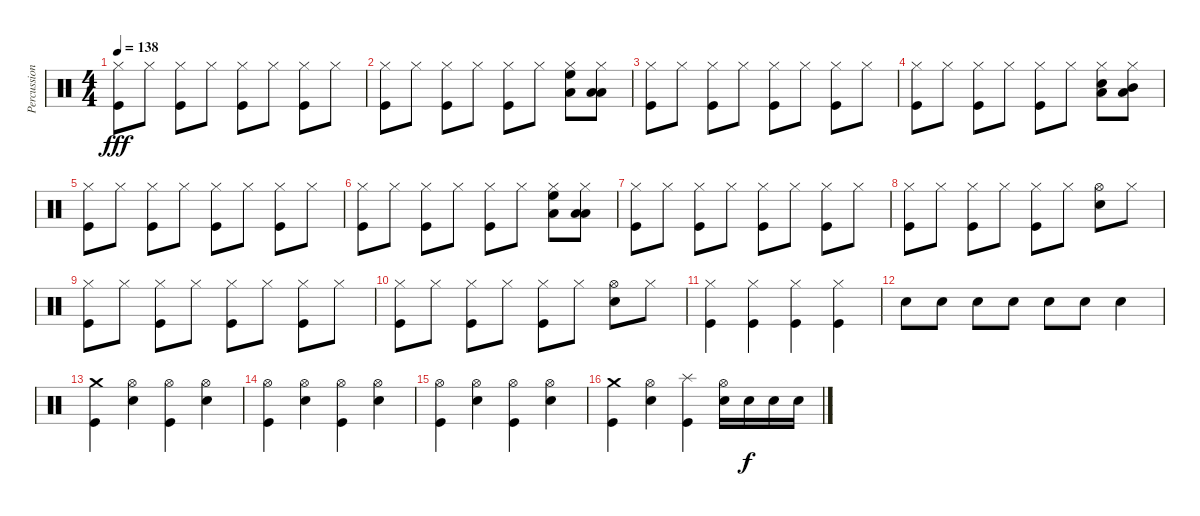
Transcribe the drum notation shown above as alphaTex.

\track ("Percussions" "Percussion") {instrument percussion}
\staff {score}
\articulation defaults
\ts (4 4)
\tempo 138
\clef neutral
\ks c
("Hi-Hat (closed)" "Kick (hit)").8{dy fff} "Hi-Hat (closed)".8 ("Hi-Hat (closed)" "Kick (hit)").8 "Hi-Hat (closed)".8 ("Hi-Hat (closed)" "Kick (hit)").8 "Hi-Hat (closed)".8 ("Hi-Hat (closed)" "Kick (hit)").8 "Hi-Hat (closed)".8 |
("Hi-Hat (closed)" "Kick (hit)").8 "Hi-Hat (closed)".8 ("Hi-Hat (closed)" "Kick (hit)").8 "Hi-Hat (closed)".8 ("Hi-Hat (closed)" "Kick (hit)").8 "Hi-Hat (closed)".8 ("Hi-Hat (closed)" "High Floor Tom (hit)" "Low Floor Tom (hit)").8 ("Hi-Hat (closed)" "Low Floor Tom (hit)" "Low Tom (hit)").8 |
("Hi-Hat (closed)" "Kick (hit)").8 "Hi-Hat (closed)".8 ("Hi-Hat (closed)" "Kick (hit)").8 "Hi-Hat (closed)".8 ("Hi-Hat (closed)" "Kick (hit)").8 "Hi-Hat (closed)".8 ("Hi-Hat (closed)" "Kick (hit)").8 "Hi-Hat (closed)".8 |
("Hi-Hat (closed)" "Kick (hit)").8 "Hi-Hat (closed)".8 ("Hi-Hat (closed)" "Kick (hit)").8 "Hi-Hat (closed)".8 ("Hi-Hat (closed)" "Kick (hit)").8 "Hi-Hat (closed)".8 ("Hi-Hat (closed)" "Snare (hit) 2" "Low Floor Tom (hit)").8 ("Hi-Hat (closed)" "Mid Tom (hit)" "Low Tom (hit)").8 |
("Hi-Hat (closed)" "Kick (hit)").8 "Hi-Hat (closed)".8 ("Hi-Hat (closed)" "Kick (hit)").8 "Hi-Hat (closed)".8 ("Hi-Hat (closed)" "Kick (hit)").8 "Hi-Hat (closed)".8 ("Hi-Hat (closed)" "Kick (hit)").8 "Hi-Hat (closed)".8 |
("Hi-Hat (closed)" "Kick (hit)").8 "Hi-Hat (closed)".8 ("Hi-Hat (closed)" "Kick (hit)").8 "Hi-Hat (closed)".8 ("Hi-Hat (closed)" "Kick (hit)").8 "Hi-Hat (closed)".8 ("Hi-Hat (closed)" "High Floor Tom (hit)" "Low Floor Tom (hit)").8 ("Hi-Hat (closed)" "Low Floor Tom (hit)" "Low Tom (hit)").8 |
("Hi-Hat (closed)" "Kick (hit)").8 "Hi-Hat (closed)".8 ("Hi-Hat (closed)" "Kick (hit)").8 "Hi-Hat (closed)".8 ("Hi-Hat (closed)" "Kick (hit)").8 "Hi-Hat (closed)".8 ("Hi-Hat (closed)" "Kick (hit)").8 "Hi-Hat (closed)".8 |
("Hi-Hat (closed)" "Kick (hit)").8 "Hi-Hat (closed)".8 ("Hi-Hat (closed)" "Kick (hit)").8 "Hi-Hat (closed)".8 ("Hi-Hat (closed)" "Kick (hit)").8 "Hi-Hat (closed)".8 ("Hi-Hat (open)" "Snare (hit) 2").8 "Hi-Hat (closed)".8 |
("Hi-Hat (closed)" "Kick (hit)").8 "Hi-Hat (closed)".8 ("Hi-Hat (closed)" "Kick (hit)").8 "Hi-Hat (closed)".8 ("Hi-Hat (closed)" "Kick (hit)").8 "Hi-Hat (closed)".8 ("Hi-Hat (closed)" "Kick (hit)").8 "Hi-Hat (closed)".8 |
("Hi-Hat (closed)" "Kick (hit)").8 "Hi-Hat (closed)".8 ("Hi-Hat (closed)" "Kick (hit)").8 "Hi-Hat (closed)".8 ("Hi-Hat (closed)" "Kick (hit)").8 "Hi-Hat (closed)".8 ("Hi-Hat (open)" "Snare (hit) 2").8 "Hi-Hat (closed)".8 |
("Hi-Hat (closed)" "Kick (hit)").4 ("Hi-Hat (closed)" "Kick (hit)").4 ("Hi-Hat (closed)" "Kick (hit)").4 ("Hi-Hat (closed)" "Kick (hit)").4 |
"Snare (hit) 2".8 "Snare (hit) 2".8 "Snare (hit) 2".8 "Snare (hit) 2".8 "Snare (hit) 2".8 "Snare (hit) 2".8 "Snare (hit) 2".4 |
("Crash medium (hit)" "Kick (hit)").4 ("Hi-Hat (open)" "Snare (hit) 2").4 ("Hi-Hat (open)" "Kick (hit)").4 ("Hi-Hat (open)" "Snare (hit) 2").4 |
("Hi-Hat (open)" "Kick (hit)").4 ("Hi-Hat (open)" "Snare (hit) 2").4 ("Hi-Hat (open)" "Kick (hit)").4 ("Hi-Hat (open)" "Snare (hit) 2").4 |
("Hi-Hat (open)" "Kick (hit)").4 ("Hi-Hat (open)" "Snare (hit) 2").4 ("Hi-Hat (open)" "Kick (hit)").4 ("Hi-Hat (open)" "Snare (hit) 2").4 |
("Crash medium (hit)" "Kick (hit)").4 ("Hi-Hat (open)" "Snare (hit) 2").4 ("Splash (hit)" "Kick (hit)").4 ("Hi-Hat (open)" "Snare (hit) 2").16 "Snare (hit) 2".16{dy f} "Snare (hit) 2".16 "Snare (hit) 2".16
